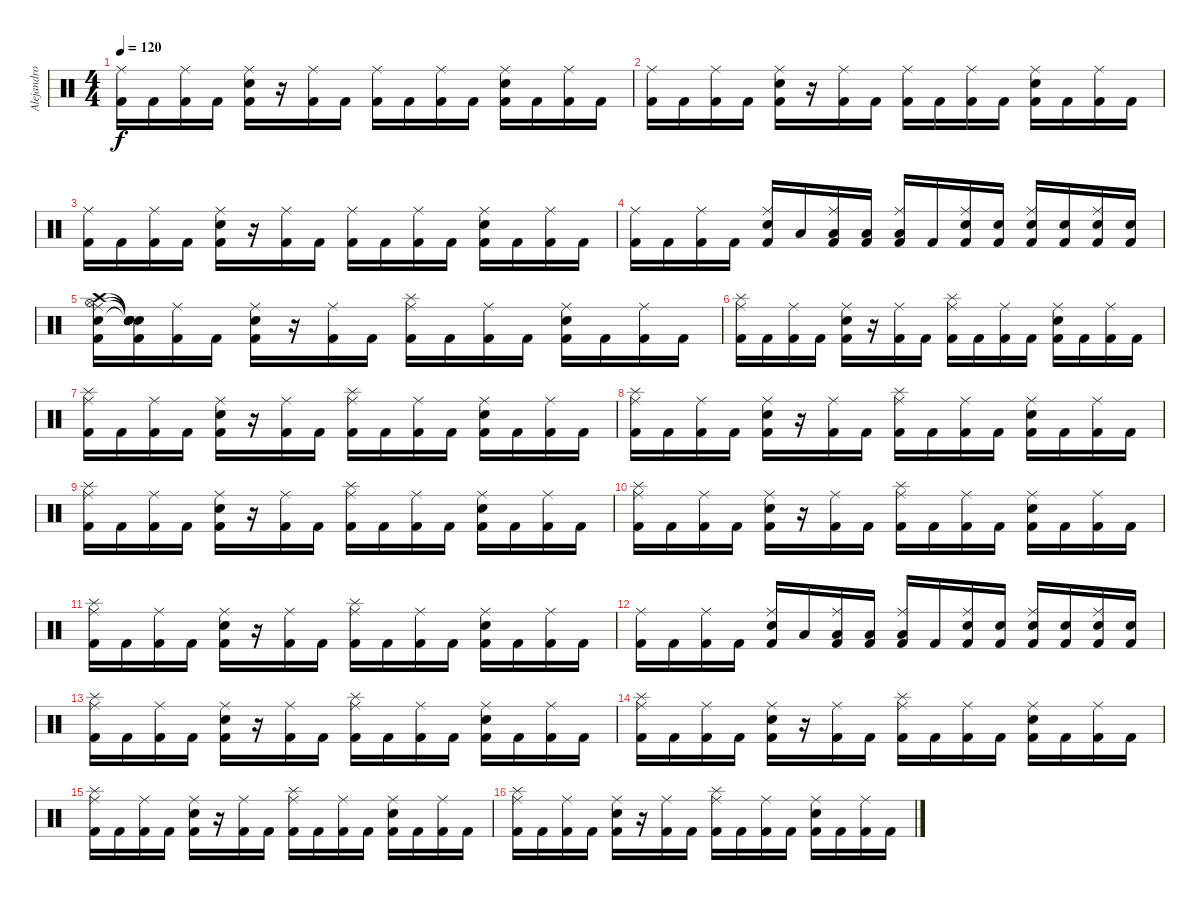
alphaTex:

\track ("Alejandro" "Alejandro") {instrument percussion}
\staff {score}
\articulation defaults
\ts (4 4)
\tempo 120
\clef neutral
\ks c
("Kick (hit) 2" "Ride (middle)").16{dy f} "Kick (hit) 2".16 ("Kick (hit) 2" "Ride (middle)").16 "Kick (hit) 2".16 ("Kick (hit) 2" "Snare (hit) 2" "Ride (middle)").16 r.16 ("Kick (hit) 2" "Ride (middle)").16 "Kick (hit) 2".16 ("Kick (hit) 2" "Ride (middle)").16 "Kick (hit) 2".16 ("Kick (hit) 2" "Ride (middle)").16 "Kick (hit) 2".16 ("Kick (hit) 2" "Snare (hit) 2" "Ride (middle)").16 "Kick (hit) 2".16 ("Kick (hit) 2" "Ride (middle)").16 "Kick (hit) 2".16 |
("Kick (hit) 2" "Ride (middle)").16 "Kick (hit) 2".16 ("Kick (hit) 2" "Ride (middle)").16 "Kick (hit) 2".16 ("Kick (hit) 2" "Snare (hit) 2" "Ride (middle)").16 r.16 ("Kick (hit) 2" "Ride (middle)").16 "Kick (hit) 2".16 ("Kick (hit) 2" "Ride (middle)").16 "Kick (hit) 2".16 ("Kick (hit) 2" "Ride (middle)").16 "Kick (hit) 2".16 ("Kick (hit) 2" "Snare (hit) 2" "Ride (middle)").16 "Kick (hit) 2".16 ("Kick (hit) 2" "Ride (middle)").16 "Kick (hit) 2".16 |
("Kick (hit) 2" "Ride (middle)").16 "Kick (hit) 2".16 ("Kick (hit) 2" "Ride (middle)").16 "Kick (hit) 2".16 ("Kick (hit) 2" "Snare (hit) 2" "Ride (middle)").16 r.16 ("Kick (hit) 2" "Ride (middle)").16 "Kick (hit) 2".16 ("Kick (hit) 2" "Ride (middle)").16 "Kick (hit) 2".16 ("Kick (hit) 2" "Ride (middle)").16 "Kick (hit) 2".16 ("Kick (hit) 2" "Snare (hit) 2" "Ride (middle)").16 "Kick (hit) 2".16 ("Kick (hit) 2" "Ride (middle)").16 "Kick (hit) 2".16 |
("Kick (hit) 2" "Ride (middle)").16 "Kick (hit) 2".16 ("Kick (hit) 2" "Ride (middle)").16 "Kick (hit) 2".16 ("Kick (hit) 2" "Snare (hit) 2" "Ride (middle)").16 "Low Floor Tom (hit)".16 ("Kick (hit) 2" "Low Floor Tom (hit)" "Ride (middle)").16 ("Kick (hit) 2" "Low Floor Tom (hit)").16 ("Kick (hit) 2" "Low Floor Tom (hit)" "Ride (middle)").16 "Kick (hit) 2".16 ("Kick (hit) 2" "Snare (hit) 2" "Ride (middle)").16 ("Kick (hit) 2" "Snare (hit) 2").16 ("Kick (hit) 2" "Snare (hit) 2" "Ride (middle)").16 ("Kick (hit) 2" "Snare (hit) 2").16 ("Kick (hit) 2" "Snare (hit) 2" "Ride (middle)").16 ("Kick (hit) 2" "Snare (hit) 2").16 |
("Kick (hit) 2" "Snare (hit) 2" "Hi-Hat (open)" "Crash high (hit)" "Ride (middle)").16 ("Kick (hit) 2" "Snare (hit)"{t} "Snare (hit)"{t} "Snare (hit)"{t} "Snare (hit)"{t}).16 ("Kick (hit) 2" "Ride (middle)").16 "Kick (hit) 2".16 ("Kick (hit) 2" "Snare (hit) 2" "Ride (middle)").16 r.16 ("Kick (hit) 2" "Ride (middle)").16 "Kick (hit) 2".16 ("Kick (hit) 2" "Splash (hit)" "Ride (middle)").16 "Kick (hit) 2".16 ("Kick (hit) 2" "Ride (middle)").16 "Kick (hit) 2".16 ("Kick (hit) 2" "Snare (hit) 2" "Ride (middle)").16 "Kick (hit) 2".16 ("Kick (hit) 2" "Ride (middle)").16 "Kick (hit) 2".16 |
("Kick (hit) 2" "Splash (hit)" "Ride (middle)").16 "Kick (hit) 2".16 ("Kick (hit) 2" "Ride (middle)").16 "Kick (hit) 2".16 ("Kick (hit) 2" "Snare (hit) 2" "Ride (middle)").16 r.16 ("Kick (hit) 2" "Ride (middle)").16 "Kick (hit) 2".16 ("Kick (hit) 2" "Splash (hit)" "Ride (middle)").16 "Kick (hit) 2".16 ("Kick (hit) 2" "Ride (middle)").16 "Kick (hit) 2".16 ("Kick (hit) 2" "Snare (hit) 2" "Ride (middle)").16 "Kick (hit) 2".16 ("Kick (hit) 2" "Ride (middle)").16 "Kick (hit) 2".16 |
("Kick (hit) 2" "Splash (hit)" "Ride (middle)").16 "Kick (hit) 2".16 ("Kick (hit) 2" "Ride (middle)").16 "Kick (hit) 2".16 ("Kick (hit) 2" "Snare (hit) 2" "Ride (middle)").16 r.16 ("Kick (hit) 2" "Ride (middle)").16 "Kick (hit) 2".16 ("Kick (hit) 2" "Splash (hit)" "Ride (middle)").16 "Kick (hit) 2".16 ("Kick (hit) 2" "Ride (middle)").16 "Kick (hit) 2".16 ("Kick (hit) 2" "Snare (hit) 2" "Ride (middle)").16 "Kick (hit) 2".16 ("Kick (hit) 2" "Ride (middle)").16 "Kick (hit) 2".16 |
("Kick (hit) 2" "Splash (hit)" "Ride (middle)").16 "Kick (hit) 2".16 ("Kick (hit) 2" "Ride (middle)").16 "Kick (hit) 2".16 ("Kick (hit) 2" "Snare (hit) 2" "Ride (middle)").16 r.16 ("Kick (hit) 2" "Ride (middle)").16 "Kick (hit) 2".16 ("Kick (hit) 2" "Splash (hit)" "Ride (middle)").16 "Kick (hit) 2".16 ("Kick (hit) 2" "Ride (middle)").16 "Kick (hit) 2".16 ("Kick (hit) 2" "Snare (hit) 2" "Ride (middle)").16 "Kick (hit) 2".16 ("Kick (hit) 2" "Ride (middle)").16 "Kick (hit) 2".16 |
("Kick (hit) 2" "Splash (hit)" "Ride (middle)").16 "Kick (hit) 2".16 ("Kick (hit) 2" "Ride (middle)").16 "Kick (hit) 2".16 ("Kick (hit) 2" "Snare (hit) 2" "Ride (middle)").16 r.16 ("Kick (hit) 2" "Ride (middle)").16 "Kick (hit) 2".16 ("Kick (hit) 2" "Splash (hit)" "Ride (middle)").16 "Kick (hit) 2".16 ("Kick (hit) 2" "Ride (middle)").16 "Kick (hit) 2".16 ("Kick (hit) 2" "Snare (hit) 2" "Ride (middle)").16 "Kick (hit) 2".16 ("Kick (hit) 2" "Ride (middle)").16 "Kick (hit) 2".16 |
("Kick (hit) 2" "Splash (hit)" "Ride (middle)").16 "Kick (hit) 2".16 ("Kick (hit) 2" "Ride (middle)").16 "Kick (hit) 2".16 ("Kick (hit) 2" "Snare (hit) 2" "Ride (middle)").16 r.16 ("Kick (hit) 2" "Ride (middle)").16 "Kick (hit) 2".16 ("Kick (hit) 2" "Splash (hit)" "Ride (middle)").16 "Kick (hit) 2".16 ("Kick (hit) 2" "Ride (middle)").16 "Kick (hit) 2".16 ("Kick (hit) 2" "Snare (hit) 2" "Ride (middle)").16 "Kick (hit) 2".16 ("Kick (hit) 2" "Ride (middle)").16 "Kick (hit) 2".16 |
("Kick (hit) 2" "Splash (hit)" "Ride (middle)").16 "Kick (hit) 2".16 ("Kick (hit) 2" "Ride (middle)").16 "Kick (hit) 2".16 ("Kick (hit) 2" "Snare (hit) 2" "Ride (middle)").16 r.16 ("Kick (hit) 2" "Ride (middle)").16 "Kick (hit) 2".16 ("Kick (hit) 2" "Splash (hit)" "Ride (middle)").16 "Kick (hit) 2".16 ("Kick (hit) 2" "Ride (middle)").16 "Kick (hit) 2".16 ("Kick (hit) 2" "Snare (hit) 2" "Ride (middle)").16 "Kick (hit) 2".16 ("Kick (hit) 2" "Ride (middle)").16 "Kick (hit) 2".16 |
("Kick (hit) 2" "Ride (middle)").16 "Kick (hit) 2".16 ("Kick (hit) 2" "Ride (middle)").16 "Kick (hit) 2".16 ("Kick (hit) 2" "Snare (hit) 2" "Ride (middle)").16 "Low Floor Tom (hit)".16 ("Kick (hit) 2" "Low Floor Tom (hit)" "Ride (middle)").16 ("Kick (hit) 2" "Low Floor Tom (hit)").16 ("Kick (hit) 2" "Low Floor Tom (hit)" "Ride (middle)").16 "Kick (hit) 2".16 ("Kick (hit) 2" "Snare (hit) 2" "Ride (middle)").16 ("Kick (hit) 2" "Snare (hit) 2").16 ("Kick (hit) 2" "Snare (hit) 2" "Ride (middle)").16 ("Kick (hit) 2" "Snare (hit) 2").16 ("Kick (hit) 2" "Snare (hit) 2" "Ride (middle)").16 ("Kick (hit) 2" "Snare (hit) 2").16 |
("Kick (hit) 2" "Splash (hit)" "Ride (middle)").16 "Kick (hit) 2".16 ("Kick (hit) 2" "Ride (middle)").16 "Kick (hit) 2".16 ("Kick (hit) 2" "Snare (hit) 2" "Ride (middle)").16 r.16 ("Kick (hit) 2" "Ride (middle)").16 "Kick (hit) 2".16 ("Kick (hit) 2" "Splash (hit)" "Ride (middle)").16 "Kick (hit) 2".16 ("Kick (hit) 2" "Ride (middle)").16 "Kick (hit) 2".16 ("Kick (hit) 2" "Snare (hit) 2" "Ride (middle)").16 "Kick (hit) 2".16 ("Kick (hit) 2" "Ride (middle)").16 "Kick (hit) 2".16 |
("Kick (hit) 2" "Splash (hit)" "Ride (middle)").16 "Kick (hit) 2".16 ("Kick (hit) 2" "Ride (middle)").16 "Kick (hit) 2".16 ("Kick (hit) 2" "Snare (hit) 2" "Ride (middle)").16 r.16 ("Kick (hit) 2" "Ride (middle)").16 "Kick (hit) 2".16 ("Kick (hit) 2" "Splash (hit)" "Ride (middle)").16 "Kick (hit) 2".16 ("Kick (hit) 2" "Ride (middle)").16 "Kick (hit) 2".16 ("Kick (hit) 2" "Snare (hit) 2" "Ride (middle)").16 "Kick (hit) 2".16 ("Kick (hit) 2" "Ride (middle)").16 "Kick (hit) 2".16 |
("Kick (hit) 2" "Splash (hit)" "Ride (middle)").16 "Kick (hit) 2".16 ("Kick (hit) 2" "Ride (middle)").16 "Kick (hit) 2".16 ("Kick (hit) 2" "Snare (hit) 2" "Ride (middle)").16 r.16 ("Kick (hit) 2" "Ride (middle)").16 "Kick (hit) 2".16 ("Kick (hit) 2" "Splash (hit)" "Ride (middle)").16 "Kick (hit) 2".16 ("Kick (hit) 2" "Ride (middle)").16 "Kick (hit) 2".16 ("Kick (hit) 2" "Snare (hit) 2" "Ride (middle)").16 "Kick (hit) 2".16 ("Kick (hit) 2" "Ride (middle)").16 "Kick (hit) 2".16 |
("Kick (hit) 2" "Splash (hit)" "Ride (middle)").16 "Kick (hit) 2".16 ("Kick (hit) 2" "Ride (middle)").16 "Kick (hit) 2".16 ("Kick (hit) 2" "Snare (hit) 2" "Ride (middle)").16 r.16 ("Kick (hit) 2" "Ride (middle)").16 "Kick (hit) 2".16 ("Kick (hit) 2" "Splash (hit)" "Ride (middle)").16 "Kick (hit) 2".16 ("Kick (hit) 2" "Ride (middle)").16 "Kick (hit) 2".16 ("Kick (hit) 2" "Snare (hit) 2" "Ride (middle)").16 "Kick (hit) 2".16 ("Kick (hit) 2" "Ride (middle)").16 "Kick (hit) 2".16
